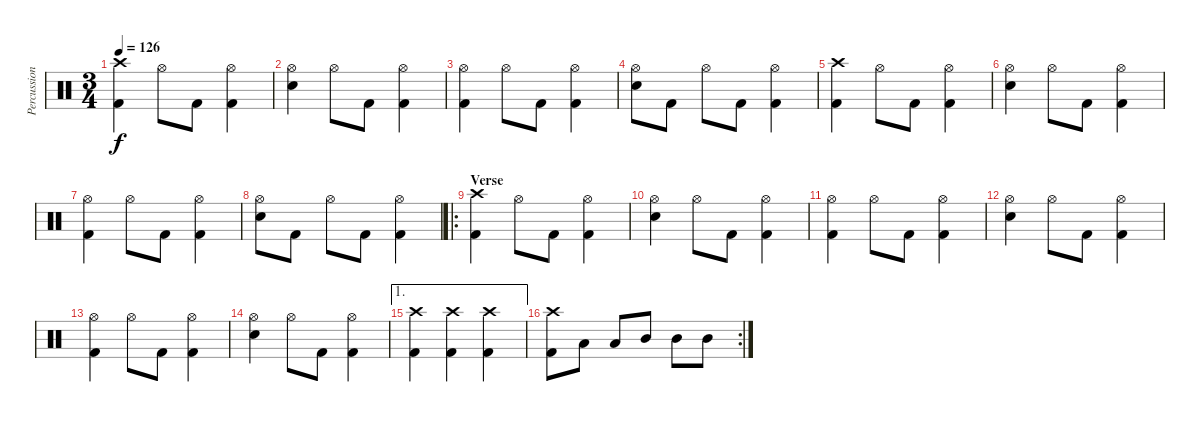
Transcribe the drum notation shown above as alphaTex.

\track ("Percussion" "Percussion") {instrument percussion}
\staff {score}
\articulation defaults
\ts (3 4)
\tempo 126
\clef neutral
\ks c
("Crash high (hit)" "Kick (hit) 2").4{dy f} "Hi-Hat (open)".8 "Kick (hit) 2".8 ("Hi-Hat (open)" "Kick (hit) 2").4 |
("Hi-Hat (open)" "Snare (hit) 2").4 "Hi-Hat (open)".8 "Kick (hit) 2".8 ("Hi-Hat (open)" "Kick (hit) 2").4 |
("Hi-Hat (open)" "Kick (hit) 2").4 "Hi-Hat (open)".8 "Kick (hit) 2".8 ("Hi-Hat (open)" "Kick (hit) 2").4 |
("Hi-Hat (open)" "Snare (hit) 2").8 "Kick (hit) 2".8 "Hi-Hat (open)".8 "Kick (hit) 2".8 ("Hi-Hat (open)" "Kick (hit) 2").4 |
("Crash high (hit)" "Kick (hit) 2").4 "Hi-Hat (open)".8 "Kick (hit) 2".8 ("Hi-Hat (open)" "Kick (hit) 2").4 |
("Hi-Hat (open)" "Snare (hit) 2").4 "Hi-Hat (open)".8 "Kick (hit) 2".8 ("Hi-Hat (open)" "Kick (hit) 2").4 |
("Hi-Hat (open)" "Kick (hit) 2").4 "Hi-Hat (open)".8 "Kick (hit) 2".8 ("Hi-Hat (open)" "Kick (hit) 2").4 |
("Hi-Hat (open)" "Snare (hit) 2").8 "Kick (hit) 2".8 "Hi-Hat (open)".8 "Kick (hit) 2".8 ("Hi-Hat (open)" "Kick (hit) 2").4 |
\ro
\section ("" "Verse")
("Crash high (hit)" "Kick (hit) 2").4 "Hi-Hat (open)".8 "Kick (hit) 2".8 ("Hi-Hat (open)" "Kick (hit) 2").4 |
("Hi-Hat (open)" "Snare (hit) 2").4 "Hi-Hat (open)".8 "Kick (hit) 2".8 ("Hi-Hat (open)" "Kick (hit) 2").4 |
("Hi-Hat (open)" "Kick (hit) 2").4 "Hi-Hat (open)".8 "Kick (hit) 2".8 ("Hi-Hat (open)" "Kick (hit) 2").4 |
("Hi-Hat (open)" "Snare (hit) 2").4 "Hi-Hat (open)".8 "Kick (hit) 2".8 ("Hi-Hat (open)" "Kick (hit) 2").4 |
("Hi-Hat (open)" "Kick (hit) 2").4 "Hi-Hat (open)".8 "Kick (hit) 2".8 ("Hi-Hat (open)" "Kick (hit) 2").4 |
("Hi-Hat (open)" "Snare (hit) 2").4 "Hi-Hat (open)".8 "Kick (hit) 2".8 ("Hi-Hat (open)" "Kick (hit) 2").4 |
\ae 1
("Crash high (hit)" "Kick (hit) 2").4 ("Crash high (hit)" "Kick (hit) 2").4 ("Crash high (hit)" "Kick (hit) 2").4 |
\rc 2
("Crash high (hit)" "Kick (hit) 2").8 "Low Tom (hit)".8 "Low Tom (hit)".8 "Mid Tom (hit)".8 "Mid Tom (hit)".8 "Mid Tom (hit)".8
